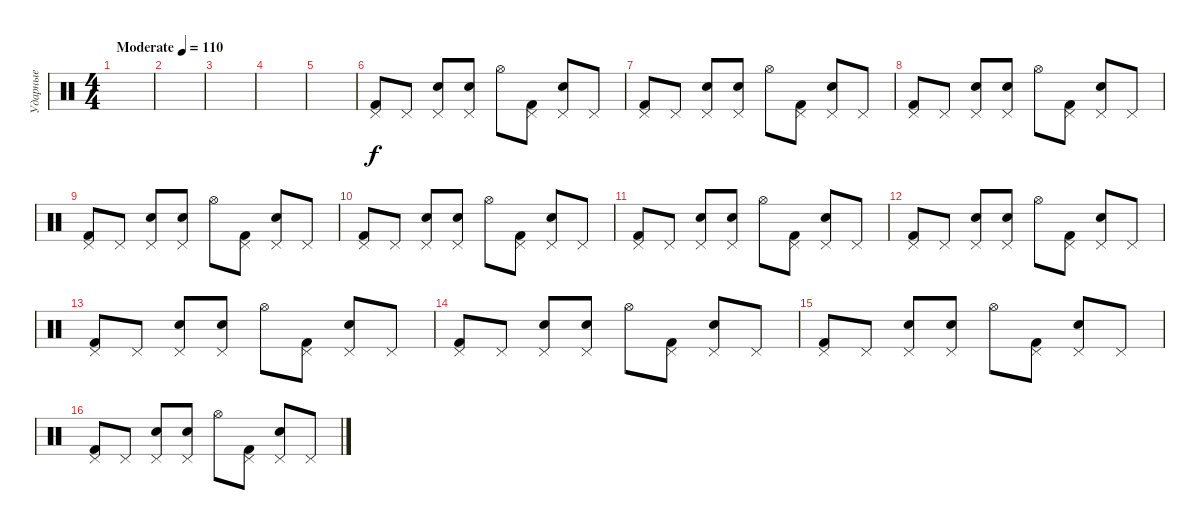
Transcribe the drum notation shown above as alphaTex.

\track ("Ударные" "Ударные") {instrument percussion}
\staff {score}
\articulation defaults
\ts (4 4)
\tempo (110 "Moderate")
\clef neutral
\ks c
|
|
|
|
|
("Kick (hit) 2" "Pedal Hi-Hat (hit)").8 "Pedal Hi-Hat (hit)".8 ("Snare (hit) 2" "Pedal Hi-Hat (hit)").8 ("Snare (hit) 2" "Pedal Hi-Hat (hit)").8 "Hi-Hat (open)".8 ("Kick (hit) 2" "Pedal Hi-Hat (hit)").8 ("Snare (hit) 2" "Pedal Hi-Hat (hit)").8 "Pedal Hi-Hat (hit)".8 |
("Kick (hit) 2" "Pedal Hi-Hat (hit)").8 "Pedal Hi-Hat (hit)".8 ("Snare (hit) 2" "Pedal Hi-Hat (hit)").8 ("Snare (hit) 2" "Pedal Hi-Hat (hit)").8 "Hi-Hat (open)".8 ("Kick (hit) 2" "Pedal Hi-Hat (hit)").8 ("Snare (hit) 2" "Pedal Hi-Hat (hit)").8 "Pedal Hi-Hat (hit)".8 |
("Kick (hit) 2" "Pedal Hi-Hat (hit)").8 "Pedal Hi-Hat (hit)".8 ("Snare (hit) 2" "Pedal Hi-Hat (hit)").8 ("Snare (hit) 2" "Pedal Hi-Hat (hit)").8 "Hi-Hat (open)".8 ("Kick (hit) 2" "Pedal Hi-Hat (hit)").8 ("Snare (hit) 2" "Pedal Hi-Hat (hit)").8 "Pedal Hi-Hat (hit)".8 |
("Kick (hit) 2" "Pedal Hi-Hat (hit)").8 "Pedal Hi-Hat (hit)".8 ("Snare (hit) 2" "Pedal Hi-Hat (hit)").8 ("Snare (hit) 2" "Pedal Hi-Hat (hit)").8 "Hi-Hat (open)".8 ("Kick (hit) 2" "Pedal Hi-Hat (hit)").8 ("Snare (hit) 2" "Pedal Hi-Hat (hit)").8 "Pedal Hi-Hat (hit)".8 |
("Kick (hit) 2" "Pedal Hi-Hat (hit)").8 "Pedal Hi-Hat (hit)".8 ("Snare (hit) 2" "Pedal Hi-Hat (hit)").8 ("Snare (hit) 2" "Pedal Hi-Hat (hit)").8 "Hi-Hat (open)".8 ("Kick (hit) 2" "Pedal Hi-Hat (hit)").8 ("Snare (hit) 2" "Pedal Hi-Hat (hit)").8 "Pedal Hi-Hat (hit)".8 |
("Kick (hit) 2" "Pedal Hi-Hat (hit)").8 "Pedal Hi-Hat (hit)".8 ("Snare (hit) 2" "Pedal Hi-Hat (hit)").8 ("Snare (hit) 2" "Pedal Hi-Hat (hit)").8 "Hi-Hat (open)".8 ("Kick (hit) 2" "Pedal Hi-Hat (hit)").8 ("Snare (hit) 2" "Pedal Hi-Hat (hit)").8 "Pedal Hi-Hat (hit)".8 |
("Kick (hit) 2" "Pedal Hi-Hat (hit)").8 "Pedal Hi-Hat (hit)".8 ("Snare (hit) 2" "Pedal Hi-Hat (hit)").8 ("Snare (hit) 2" "Pedal Hi-Hat (hit)").8 "Hi-Hat (open)".8 ("Kick (hit) 2" "Pedal Hi-Hat (hit)").8 ("Snare (hit) 2" "Pedal Hi-Hat (hit)").8 "Pedal Hi-Hat (hit)".8 |
("Kick (hit) 2" "Pedal Hi-Hat (hit)").8 "Pedal Hi-Hat (hit)".8 ("Snare (hit) 2" "Pedal Hi-Hat (hit)").8 ("Snare (hit) 2" "Pedal Hi-Hat (hit)").8 "Hi-Hat (open)".8 ("Kick (hit) 2" "Pedal Hi-Hat (hit)").8 ("Snare (hit) 2" "Pedal Hi-Hat (hit)").8 "Pedal Hi-Hat (hit)".8 |
("Kick (hit) 2" "Pedal Hi-Hat (hit)").8 "Pedal Hi-Hat (hit)".8 ("Snare (hit) 2" "Pedal Hi-Hat (hit)").8 ("Snare (hit) 2" "Pedal Hi-Hat (hit)").8 "Hi-Hat (open)".8 ("Kick (hit) 2" "Pedal Hi-Hat (hit)").8 ("Snare (hit) 2" "Pedal Hi-Hat (hit)").8 "Pedal Hi-Hat (hit)".8 |
("Kick (hit) 2" "Pedal Hi-Hat (hit)").8 "Pedal Hi-Hat (hit)".8 ("Snare (hit) 2" "Pedal Hi-Hat (hit)").8 ("Snare (hit) 2" "Pedal Hi-Hat (hit)").8 "Hi-Hat (open)".8 ("Kick (hit) 2" "Pedal Hi-Hat (hit)").8 ("Snare (hit) 2" "Pedal Hi-Hat (hit)").8 "Pedal Hi-Hat (hit)".8 |
("Kick (hit) 2" "Pedal Hi-Hat (hit)").8 "Pedal Hi-Hat (hit)".8 ("Snare (hit) 2" "Pedal Hi-Hat (hit)").8 ("Snare (hit) 2" "Pedal Hi-Hat (hit)").8 "Hi-Hat (open)".8 ("Kick (hit) 2" "Pedal Hi-Hat (hit)").8 ("Snare (hit) 2" "Pedal Hi-Hat (hit)").8 "Pedal Hi-Hat (hit)".8
